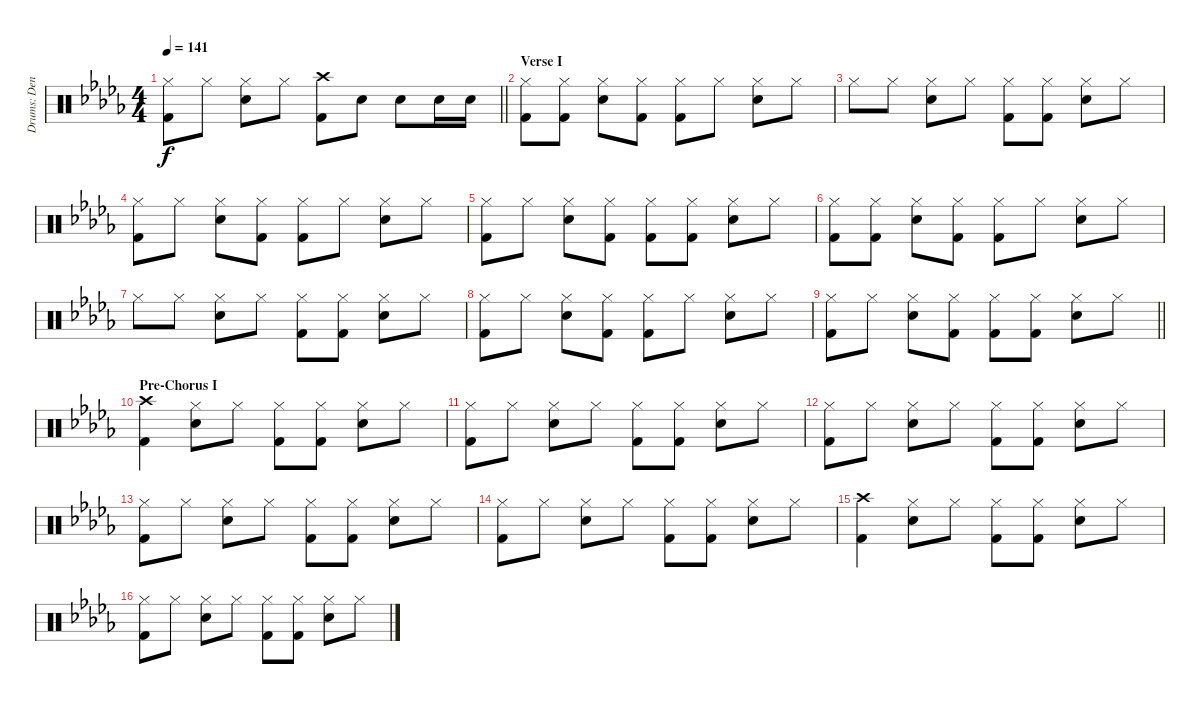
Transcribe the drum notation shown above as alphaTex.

\track ("Drums: Denny" "Drums: Den") {instrument percussion}
\staff {score}
\articulation defaults
\ts (4 4)
\tempo 141
\clef neutral
\barLineRight lightlight
\ks db
("Hi-Hat (closed)" "Kick (hit) 2").8{dy f} "Hi-Hat (closed)".8 ("Hi-Hat (closed)" "Snare (hit) 2").8 "Hi-Hat (closed)".8 ("Crash high (hit)" "Kick (hit) 2").8 "Snare (hit) 2".8 "Snare (hit) 2".8 "Snare (hit) 2".16 "Snare (hit) 2".16 |
\section ("" "Verse I")
("Hi-Hat (closed)" "Kick (hit) 2").8 ("Hi-Hat (closed)" "Kick (hit) 2").8 ("Hi-Hat (closed)" "Snare (hit) 2").8 ("Hi-Hat (closed)" "Kick (hit) 2").8 ("Hi-Hat (closed)" "Kick (hit) 2").8 "Hi-Hat (closed)".8 ("Hi-Hat (closed)" "Snare (hit) 2").8 "Hi-Hat (closed)".8 |
"Hi-Hat (closed)".8 "Hi-Hat (closed)".8 ("Hi-Hat (closed)" "Snare (hit) 2").8 "Hi-Hat (closed)".8 ("Hi-Hat (closed)" "Kick (hit) 2").8 ("Hi-Hat (closed)" "Kick (hit) 2").8 ("Hi-Hat (closed)" "Snare (hit) 2").8 "Hi-Hat (closed)".8 |
("Hi-Hat (closed)" "Kick (hit) 2").8 "Hi-Hat (closed)".8 ("Hi-Hat (closed)" "Snare (hit) 2").8 ("Hi-Hat (closed)" "Kick (hit) 2").8 ("Hi-Hat (closed)" "Kick (hit) 2").8 "Hi-Hat (closed)".8 ("Hi-Hat (closed)" "Snare (hit) 2").8 "Hi-Hat (closed)".8 |
("Hi-Hat (closed)" "Kick (hit) 2").8 "Hi-Hat (closed)".8 ("Hi-Hat (closed)" "Snare (hit) 2").8 ("Hi-Hat (closed)" "Kick (hit) 2").8 ("Hi-Hat (closed)" "Kick (hit) 2").8 ("Hi-Hat (closed)" "Kick (hit) 2").8 ("Hi-Hat (closed)" "Snare (hit) 2").8 "Hi-Hat (closed)".8 |
("Hi-Hat (closed)" "Kick (hit) 2").8 ("Hi-Hat (closed)" "Kick (hit) 2").8 ("Hi-Hat (closed)" "Snare (hit) 2").8 ("Hi-Hat (closed)" "Kick (hit) 2").8 ("Hi-Hat (closed)" "Kick (hit) 2").8 "Hi-Hat (closed)".8 ("Hi-Hat (closed)" "Snare (hit) 2").8 "Hi-Hat (closed)".8 |
"Hi-Hat (closed)".8 "Hi-Hat (closed)".8 ("Hi-Hat (closed)" "Snare (hit) 2").8 "Hi-Hat (closed)".8 ("Hi-Hat (closed)" "Kick (hit) 2").8 ("Hi-Hat (closed)" "Kick (hit) 2").8 ("Hi-Hat (closed)" "Snare (hit) 2").8 "Hi-Hat (closed)".8 |
("Hi-Hat (closed)" "Kick (hit) 2").8 "Hi-Hat (closed)".8 ("Hi-Hat (closed)" "Snare (hit) 2").8 ("Hi-Hat (closed)" "Kick (hit) 2").8 ("Hi-Hat (closed)" "Kick (hit) 2").8 "Hi-Hat (closed)".8 ("Hi-Hat (closed)" "Snare (hit) 2").8 "Hi-Hat (closed)".8 |
\barLineRight lightlight
("Hi-Hat (closed)" "Kick (hit) 2").8 "Hi-Hat (closed)".8 ("Hi-Hat (closed)" "Snare (hit) 2").8 ("Hi-Hat (closed)" "Kick (hit) 2").8 ("Hi-Hat (closed)" "Kick (hit) 2").8 ("Hi-Hat (closed)" "Kick (hit) 2").8 ("Hi-Hat (closed)" "Snare (hit) 2").8 "Hi-Hat (closed)".8 |
\section ("" "Pre-Chorus I")
("Crash high (hit)" "Kick (hit) 2").4 ("Hi-Hat (closed)" "Snare (hit) 2").8 "Hi-Hat (closed)".8 ("Hi-Hat (closed)" "Kick (hit) 2").8 ("Hi-Hat (closed)" "Kick (hit) 2").8 ("Hi-Hat (closed)" "Snare (hit) 2").8 "Hi-Hat (closed)".8 |
("Hi-Hat (closed)" "Kick (hit) 2").8 "Hi-Hat (closed)".8 ("Hi-Hat (closed)" "Snare (hit) 2").8 "Hi-Hat (closed)".8 ("Hi-Hat (closed)" "Kick (hit) 2").8 ("Hi-Hat (closed)" "Kick (hit) 2").8 ("Hi-Hat (closed)" "Snare (hit) 2").8 "Hi-Hat (closed)".8 |
("Hi-Hat (closed)" "Kick (hit) 2").8 "Hi-Hat (closed)".8 ("Hi-Hat (closed)" "Snare (hit) 2").8 "Hi-Hat (closed)".8 ("Hi-Hat (closed)" "Kick (hit) 2").8 ("Hi-Hat (closed)" "Kick (hit) 2").8 ("Hi-Hat (closed)" "Snare (hit) 2").8 "Hi-Hat (closed)".8 |
("Hi-Hat (closed)" "Kick (hit) 2").8 "Hi-Hat (closed)".8 ("Hi-Hat (closed)" "Snare (hit) 2").8 "Hi-Hat (closed)".8 ("Hi-Hat (closed)" "Kick (hit) 2").8 ("Hi-Hat (closed)" "Kick (hit) 2").8 ("Hi-Hat (closed)" "Snare (hit) 2").8 "Hi-Hat (closed)".8 |
("Hi-Hat (closed)" "Kick (hit) 2").8 "Hi-Hat (closed)".8 ("Hi-Hat (closed)" "Snare (hit) 2").8 "Hi-Hat (closed)".8 ("Hi-Hat (closed)" "Kick (hit) 2").8 ("Hi-Hat (closed)" "Kick (hit) 2").8 ("Hi-Hat (closed)" "Snare (hit) 2").8 "Hi-Hat (closed)".8 |
("Crash high (hit)" "Kick (hit) 2").4 ("Hi-Hat (closed)" "Snare (hit) 2").8 "Hi-Hat (closed)".8 ("Hi-Hat (closed)" "Kick (hit) 2").8 ("Hi-Hat (closed)" "Kick (hit) 2").8 ("Hi-Hat (closed)" "Snare (hit) 2").8 "Hi-Hat (closed)".8 |
("Hi-Hat (closed)" "Kick (hit) 2").8 "Hi-Hat (closed)".8 ("Hi-Hat (closed)" "Snare (hit) 2").8 "Hi-Hat (closed)".8 ("Hi-Hat (closed)" "Kick (hit) 2").8 ("Hi-Hat (closed)" "Kick (hit) 2").8 ("Hi-Hat (closed)" "Snare (hit) 2").8 "Hi-Hat (closed)".8
